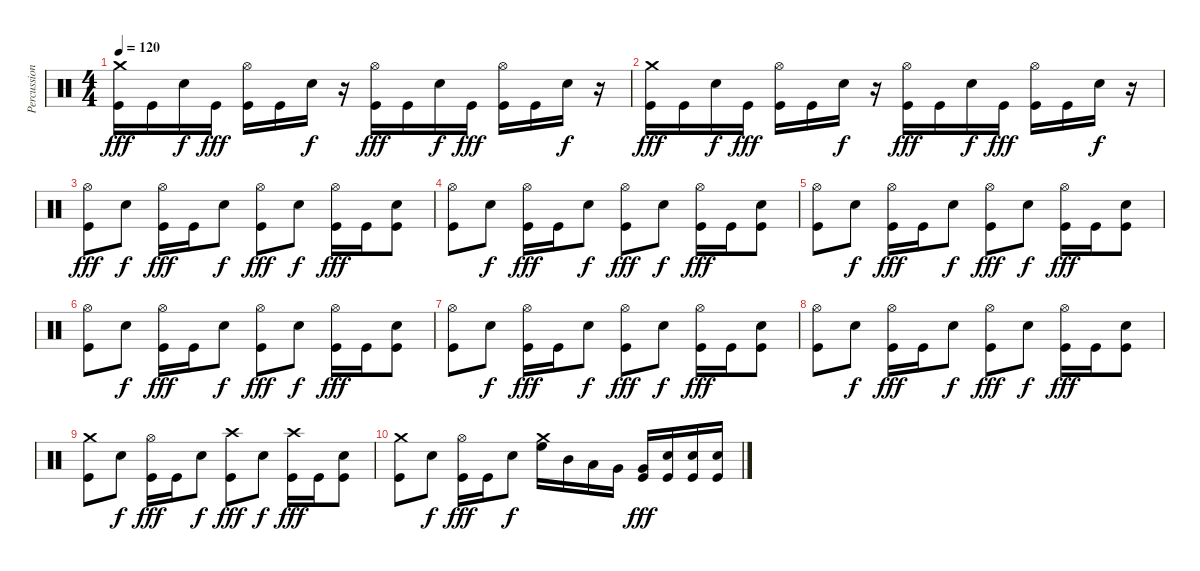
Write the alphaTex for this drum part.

\track ("Percussion" "Percussion") {instrument percussion}
\staff {score}
\articulation defaults
\ts (4 4)
\tempo 120
\clef neutral
\ks c
("Crash medium (hit)" "Kick (hit)").16{dy fff} "Kick (hit)".16 "Electric Snare (hit)".16{dy f} "Kick (hit)".16{dy fff} ("Hi-Hat (open)" "Kick (hit)").16 "Kick (hit)".16 "Electric Snare (hit)".16{dy f} r.16 ("Hi-Hat (open)" "Kick (hit)").16{dy fff} "Kick (hit)".16 "Electric Snare (hit)".16{dy f} "Kick (hit)".16{dy fff} ("Hi-Hat (open)" "Kick (hit)").16 "Kick (hit)".16 "Electric Snare (hit)".16{dy f} r.16 |
("Crash medium (hit)" "Kick (hit)").16{dy fff} "Kick (hit)".16 "Electric Snare (hit)".16{dy f} "Kick (hit)".16{dy fff} ("Hi-Hat (open)" "Kick (hit)").16 "Kick (hit)".16 "Electric Snare (hit)".16{dy f} r.16 ("Hi-Hat (open)" "Kick (hit)").16{dy fff} "Kick (hit)".16 "Electric Snare (hit)".16{dy f} "Kick (hit)".16{dy fff} ("Hi-Hat (open)" "Kick (hit)").16 "Kick (hit)".16 "Electric Snare (hit)".16{dy f} r.16 |
("Hi-Hat (open)" "Kick (hit)").8{dy fff} "Electric Snare (hit)".8{dy f} ("Hi-Hat (open)" "Kick (hit)").16{dy fff} "Kick (hit)".16 "Electric Snare (hit)".8{dy f} ("Hi-Hat (open)" "Kick (hit)").8{dy fff} "Electric Snare (hit)".8{dy f} ("Hi-Hat (open)" "Kick (hit)").16{dy fff} "Kick (hit)".16 ("Electric Snare (hit)" "Kick (hit)").8 |
("Hi-Hat (open)" "Kick (hit)").8 "Electric Snare (hit)".8{dy f} ("Hi-Hat (open)" "Kick (hit)").16{dy fff} "Kick (hit)".16 "Electric Snare (hit)".8{dy f} ("Hi-Hat (open)" "Kick (hit)").8{dy fff} "Electric Snare (hit)".8{dy f} ("Hi-Hat (open)" "Kick (hit)").16{dy fff} "Kick (hit)".16 ("Electric Snare (hit)" "Kick (hit)").8 |
("Hi-Hat (open)" "Kick (hit)").8 "Electric Snare (hit)".8{dy f} ("Hi-Hat (open)" "Kick (hit)").16{dy fff} "Kick (hit)".16 "Electric Snare (hit)".8{dy f} ("Hi-Hat (open)" "Kick (hit)").8{dy fff} "Electric Snare (hit)".8{dy f} ("Hi-Hat (open)" "Kick (hit)").16{dy fff} "Kick (hit)".16 ("Electric Snare (hit)" "Kick (hit)").8 |
("Hi-Hat (open)" "Kick (hit)").8 "Electric Snare (hit)".8{dy f} ("Hi-Hat (open)" "Kick (hit)").16{dy fff} "Kick (hit)".16 "Electric Snare (hit)".8{dy f} ("Hi-Hat (open)" "Kick (hit)").8{dy fff} "Electric Snare (hit)".8{dy f} ("Hi-Hat (open)" "Kick (hit)").16{dy fff} "Kick (hit)".16 ("Electric Snare (hit)" "Kick (hit)").8 |
("Hi-Hat (open)" "Kick (hit)").8 "Electric Snare (hit)".8{dy f} ("Hi-Hat (open)" "Kick (hit)").16{dy fff} "Kick (hit)".16 "Electric Snare (hit)".8{dy f} ("Hi-Hat (open)" "Kick (hit)").8{dy fff} "Electric Snare (hit)".8{dy f} ("Hi-Hat (open)" "Kick (hit)").16{dy fff} "Kick (hit)".16 ("Electric Snare (hit)" "Kick (hit)").8 |
("Hi-Hat (open)" "Kick (hit)").8 "Electric Snare (hit)".8{dy f} ("Hi-Hat (open)" "Kick (hit)").16{dy fff} "Kick (hit)".16 "Electric Snare (hit)".8{dy f} ("Hi-Hat (open)" "Kick (hit)").8{dy fff} "Electric Snare (hit)".8{dy f} ("Hi-Hat (open)" "Kick (hit)").16{dy fff} "Kick (hit)".16 ("Electric Snare (hit)" "Kick (hit)").8 |
("Crash medium (hit)" "Kick (hit)").8 "Electric Snare (hit)".8{dy f} ("Hi-Hat (open)" "Kick (hit)").16{dy fff} "Kick (hit)".16 "Electric Snare (hit)".8{dy f} ("Crash high (hit)" "Kick (hit)").8{dy fff} "Electric Snare (hit)".8{dy f} ("Crash high (hit)" "Kick (hit)").16{dy fff} "Kick (hit)".16 ("Electric Snare (hit)" "Kick (hit)").8 |
("Crash medium (hit)" "Kick (hit)").8 "Electric Snare (hit)".8{dy f} ("Hi-Hat (open)" "Kick (hit)").16{dy fff} "Kick (hit)".16 "Electric Snare (hit)".8{dy f} ("Crash medium (hit)" "High Floor Tom (hit)").16 "Mid Tom (hit)".16 "Low Tom (hit)".16 "Very Low Tom (hit)".16 ("Very Low Tom (hit)" "Kick (hit)").16{dy fff} ("Electric Snare (hit)" "Kick (hit)").16 ("Electric Snare (hit)" "Kick (hit)").16 ("Electric Snare (hit)" "Kick (hit)").16
